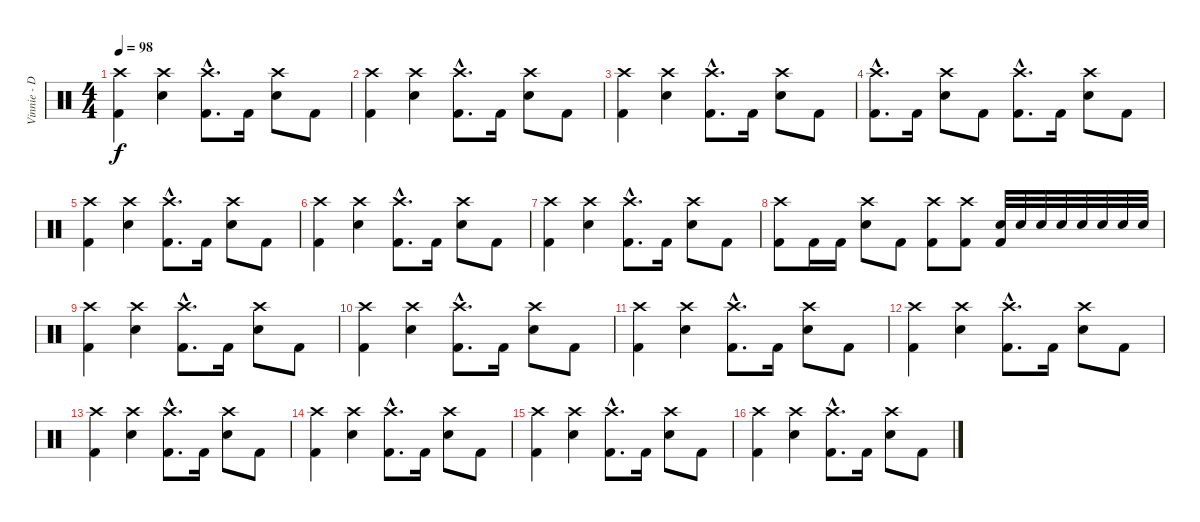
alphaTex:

\track ("Vinnie - Drums" "Vinnie - D") {instrument percussion}
\staff {score}
\articulation defaults
\ts (4 4)
\tempo 98
\clef neutral
\ks c
("Crash high (hit)" "Kick (hit) 2").4{dy f} ("Crash high (hit)" "Electric Snare (hit)").4 ("Crash high (hit)"{hac} "Kick (hit) 2"{hac}).8{d} "Kick (hit) 2".16 ("Crash high (hit)" "Electric Snare (hit)").8 "Kick (hit) 2".8 |
("Crash high (hit)" "Kick (hit) 2").4 ("Crash high (hit)" "Electric Snare (hit)").4 ("Crash high (hit)"{hac} "Kick (hit) 2"{hac}).8{d} "Kick (hit) 2".16 ("Crash high (hit)" "Electric Snare (hit)").8 "Kick (hit) 2".8 |
("Crash high (hit)" "Kick (hit) 2").4 ("Crash high (hit)" "Electric Snare (hit)").4 ("Crash high (hit)"{hac} "Kick (hit) 2"{hac}).8{d} "Kick (hit) 2".16 ("Crash high (hit)" "Electric Snare (hit)").8 "Kick (hit) 2".8 |
("Crash high (hit)"{hac} "Kick (hit) 2"{hac}).8{d} "Kick (hit) 2".16 ("Crash high (hit)" "Electric Snare (hit)").8 "Kick (hit) 2".8 ("Crash high (hit)"{hac} "Kick (hit) 2"{hac}).8{d} "Kick (hit) 2".16 ("Crash high (hit)" "Electric Snare (hit)").8 "Kick (hit) 2".8 |
("Crash high (hit)" "Kick (hit) 2").4 ("Crash high (hit)" "Electric Snare (hit)").4 ("Crash high (hit)"{hac} "Kick (hit) 2"{hac}).8{d} "Kick (hit) 2".16 ("Crash high (hit)" "Electric Snare (hit)").8 "Kick (hit) 2".8 |
("Crash high (hit)" "Kick (hit) 2").4 ("Crash high (hit)" "Electric Snare (hit)").4 ("Crash high (hit)"{hac} "Kick (hit) 2"{hac}).8{d} "Kick (hit) 2".16 ("Crash high (hit)" "Electric Snare (hit)").8 "Kick (hit) 2".8 |
("Crash high (hit)" "Kick (hit) 2").4 ("Crash high (hit)" "Electric Snare (hit)").4 ("Crash high (hit)"{hac} "Kick (hit) 2"{hac}).8{d} "Kick (hit) 2".16 ("Crash high (hit)" "Electric Snare (hit)").8 "Kick (hit) 2".8 |
("Crash high (hit)" "Kick (hit) 2").8 "Kick (hit) 2".16 "Kick (hit) 2".16 ("Crash high (hit)" "Electric Snare (hit)").8 "Kick (hit) 2".8 ("Crash high (hit)" "Kick (hit) 2").8 ("Crash high (hit)" "Kick (hit) 2").8 ("Electric Snare (hit)" "Kick (hit) 2").32 "Electric Snare (hit)".32 "Electric Snare (hit)".32 "Electric Snare (hit)".32 "Electric Snare (hit)".32 "Electric Snare (hit)".32 "Electric Snare (hit)".32 "Electric Snare (hit)".32 |
("Crash high (hit)" "Kick (hit) 2").4 ("Crash high (hit)" "Electric Snare (hit)").4 ("Crash high (hit)"{hac} "Kick (hit) 2"{hac}).8{d} "Kick (hit) 2".16 ("Crash high (hit)" "Electric Snare (hit)").8 "Kick (hit) 2".8 |
("Crash high (hit)" "Kick (hit) 2").4 ("Crash high (hit)" "Electric Snare (hit)").4 ("Crash high (hit)"{hac} "Kick (hit) 2"{hac}).8{d} "Kick (hit) 2".16 ("Crash high (hit)" "Electric Snare (hit)").8 "Kick (hit) 2".8 |
("Crash high (hit)" "Kick (hit) 2").4 ("Crash high (hit)" "Electric Snare (hit)").4 ("Crash high (hit)"{hac} "Kick (hit) 2"{hac}).8{d} "Kick (hit) 2".16 ("Crash high (hit)" "Electric Snare (hit)").8 "Kick (hit) 2".8 |
("Crash high (hit)" "Kick (hit) 2").4 ("Crash high (hit)" "Electric Snare (hit)").4 ("Crash high (hit)"{hac} "Kick (hit) 2"{hac}).8{d} "Kick (hit) 2".16 ("Crash high (hit)" "Electric Snare (hit)").8 "Kick (hit) 2".8 |
("Crash high (hit)" "Kick (hit) 2").4 ("Crash high (hit)" "Electric Snare (hit)").4 ("Crash high (hit)"{hac} "Kick (hit) 2"{hac}).8{d} "Kick (hit) 2".16 ("Crash high (hit)" "Electric Snare (hit)").8 "Kick (hit) 2".8 |
("Crash high (hit)" "Kick (hit) 2").4 ("Crash high (hit)" "Electric Snare (hit)").4 ("Crash high (hit)"{hac} "Kick (hit) 2"{hac}).8{d} "Kick (hit) 2".16 ("Crash high (hit)" "Electric Snare (hit)").8 "Kick (hit) 2".8 |
("Crash high (hit)" "Kick (hit) 2").4 ("Crash high (hit)" "Electric Snare (hit)").4 ("Crash high (hit)"{hac} "Kick (hit) 2"{hac}).8{d} "Kick (hit) 2".16 ("Crash high (hit)" "Electric Snare (hit)").8 "Kick (hit) 2".8 |
("Crash high (hit)" "Kick (hit) 2").4 ("Crash high (hit)" "Electric Snare (hit)").4 ("Crash high (hit)"{hac} "Kick (hit) 2"{hac}).8{d} "Kick (hit) 2".16 ("Crash high (hit)" "Electric Snare (hit)").8 "Kick (hit) 2".8
